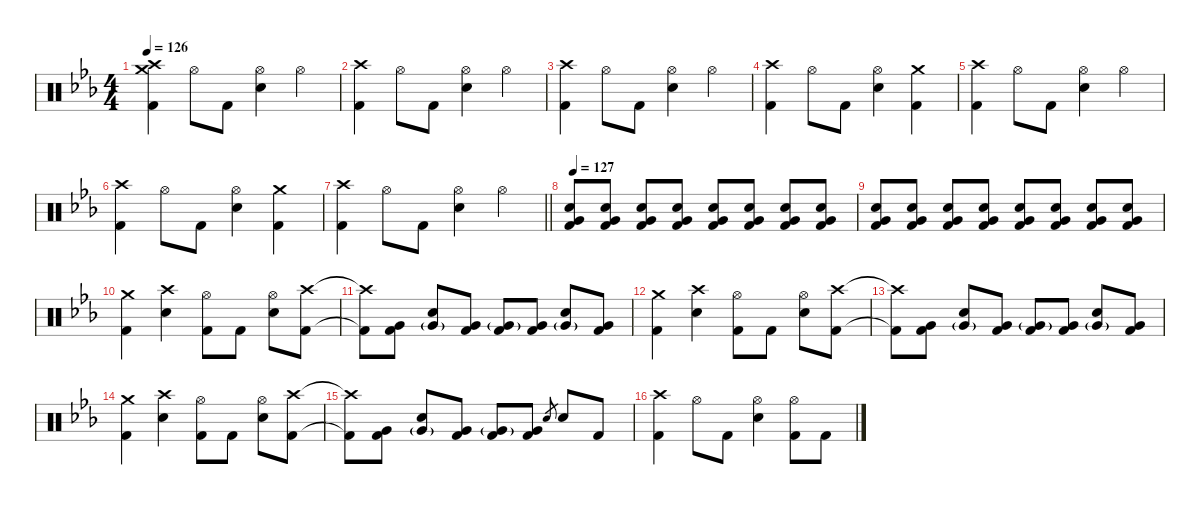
\defaultSystemsLayout 4
\hideDynamics
\bracketExtendMode nobrackets
\singleTrackTrackNamePolicy hidden
\multiTrackTrackNamePolicy hidden
\firstSystemTrackNameMode fullname
\firstSystemTrackNameOrientation horizontal
\otherSystemsTrackNameOrientation horizontal
\track ("Drums" "drm.") {instrument percussion}
\staff {score}
\articulation defaults
\ts (4 4)
\tempo 126
\clef neutral
\ks cminor
("Crash medium (hit)"{acc forcenatural} "Crash high (hit)"{acc forcenatural} "Kick (hit) 2"{acc forcenatural}).4{dy f} "Hi-Hat (open)"{acc forcenatural}.8{dy mp} "Kick (hit) 2"{acc forcenatural}.8{dy f} ("Hi-Hat (open)"{acc forcenatural} "Snare (hit) 2"{acc forcenatural}).4{dy mp} "Hi-Hat (open)"{acc forcenatural}.4 |
("Crash high (hit)"{acc forcenatural} "Kick (hit) 2"{acc forcenatural}).4 "Hi-Hat (open)"{acc forcenatural}.8 "Kick (hit) 2"{acc forcenatural}.8{dy f} ("Hi-Hat (open)"{acc forcenatural} "Snare (hit) 2"{acc forcenatural}).4{dy mp} "Hi-Hat (open)"{acc forcenatural}.4 |
("Crash high (hit)"{acc forcenatural} "Kick (hit) 2"{acc forcenatural}).4 "Hi-Hat (open)"{acc forcenatural}.8 "Kick (hit) 2"{acc forcenatural}.8{dy f} ("Hi-Hat (open)"{acc forcenatural} "Snare (hit) 2"{acc forcenatural}).4{dy mp} "Hi-Hat (open)"{acc forcenatural}.4 |
("Crash high (hit)"{acc forcenatural} "Kick (hit) 2"{acc forcenatural}).4 "Hi-Hat (open)"{acc forcenatural}.8 "Kick (hit) 2"{acc forcenatural}.8{dy f} ("Hi-Hat (open)"{acc forcenatural} "Snare (hit) 2"{acc forcenatural}).4{dy mp} ("Crash medium (hit)"{acc forcenatural} "Kick (hit) 2"{acc forcenatural}).4 |
("Crash high (hit)"{acc forcenatural} "Kick (hit) 2"{acc forcenatural}).4 "Hi-Hat (open)"{acc forcenatural}.8 "Kick (hit) 2"{acc forcenatural}.8{dy f} ("Hi-Hat (open)"{acc forcenatural} "Snare (hit) 2"{acc forcenatural}).4{dy mp} "Hi-Hat (open)"{acc forcenatural}.4 |
("Crash high (hit)"{acc forcenatural} "Kick (hit) 2"{acc forcenatural}).4 "Hi-Hat (open)"{acc forcenatural}.8 "Kick (hit) 2"{acc forcenatural}.8{dy f} ("Hi-Hat (open)"{acc forcenatural} "Snare (hit) 2"{acc forcenatural}).4{dy mp} ("Crash medium (hit)"{acc forcenatural} "Kick (hit) 2"{acc forcenatural}).4 |
\barLineRight lightlight
("Crash high (hit)"{acc forcenatural} "Kick (hit) 2"{acc forcenatural}).4 "Hi-Hat (open)"{acc forcenatural}.8 "Kick (hit) 2"{acc forcenatural}.8{dy f} ("Hi-Hat (open)"{acc forcenatural} "Snare (hit) 2"{acc forcenatural}).4{dy mp} "Hi-Hat (open)"{acc forcenatural}.4 |
\tempo 127
("Snare (hit) 2"{acc forcenatural} "Very Low Tom (hit)"{acc forcenatural} "Kick (hit) 2"{acc forcenatural}).8{dy ppp} ("Snare (hit) 2"{acc forcenatural} "Very Low Tom (hit)"{acc forcenatural} "Kick (hit) 2"{acc forcenatural}).8 ("Snare (hit) 2"{acc forcenatural} "Very Low Tom (hit)"{acc forcenatural} "Kick (hit) 2"{acc forcenatural}).8{dy pp} ("Snare (hit) 2"{acc forcenatural} "Very Low Tom (hit)"{acc forcenatural} "Kick (hit) 2"{acc forcenatural}).8 ("Snare (hit) 2"{acc forcenatural} "Very Low Tom (hit)"{acc forcenatural} "Kick (hit) 2"{acc forcenatural}).8{dy p} ("Snare (hit) 2"{acc forcenatural} "Very Low Tom (hit)"{acc forcenatural} "Kick (hit) 2"{acc forcenatural}).8 ("Snare (hit) 2"{acc forcenatural} "Very Low Tom (hit)"{acc forcenatural} "Kick (hit) 2"{acc forcenatural}).8{dy mp} ("Snare (hit) 2"{acc forcenatural} "Very Low Tom (hit)"{acc forcenatural} "Kick (hit) 2"{acc forcenatural}).8 |
("Snare (hit) 2"{acc forcenatural} "Very Low Tom (hit)"{acc forcenatural} "Kick (hit) 2"{acc forcenatural}).8{dy mf} ("Snare (hit) 2"{acc forcenatural} "Very Low Tom (hit)"{acc forcenatural} "Kick (hit) 2"{acc forcenatural}).8 ("Snare (hit) 2"{acc forcenatural} "Very Low Tom (hit)"{acc forcenatural} "Kick (hit) 2"{acc forcenatural}).8{dy f} ("Snare (hit) 2"{acc forcenatural} "Very Low Tom (hit)"{acc forcenatural} "Kick (hit) 2"{acc forcenatural}).8 ("Snare (hit) 2"{acc forcenatural} "Very Low Tom (hit)"{acc forcenatural} "Kick (hit) 2"{acc forcenatural}).8{dy ff} ("Snare (hit) 2"{acc forcenatural} "Very Low Tom (hit)"{acc forcenatural} "Kick (hit) 2"{acc forcenatural}).8 ("Snare (hit) 2"{acc forcenatural} "Very Low Tom (hit)"{acc forcenatural} "Kick (hit) 2"{acc forcenatural}).8{dy fff} ("Snare (hit) 2"{acc forcenatural} "Very Low Tom (hit)"{acc forcenatural} "Kick (hit) 2"{acc forcenatural}).8 |
("Crash medium (hit)"{acc forcenatural} "Kick (hit) 2"{acc forcenatural}).4{dy f} ("Crash high (hit)"{acc forcenatural} "Snare (hit) 2"{acc forcenatural}).4 ("Hi-Hat (open)"{acc forcenatural} "Kick (hit) 2"{acc forcenatural}).8{dy mp} "Kick (hit) 2"{acc forcenatural}.8{dy f} ("Hi-Hat (open)"{acc forcenatural} "Snare (hit) 2"{acc forcenatural}).8{dy mp} ("Crash high (hit)"{acc forcenatural} "Kick (hit) 2"{acc forcenatural}).8{dy f} |
("Crash high (hit)"{t acc forcenatural} "Kick (hit) 2"{t acc forcenatural}).8 ("Very Low Tom (hit)"{acc forcenatural} "Kick (hit) 2"{acc forcenatural}).8 ("Snare (hit) 2"{acc forcenatural} "Very Low Tom (hit)"{g acc forcenatural}).8 ("Very Low Tom (hit)"{acc forcenatural} "Kick (hit) 2"{acc forcenatural}).8 ("Very Low Tom (hit)"{g acc forcenatural} "Kick (hit) 2"{acc forcenatural}).8 ("Very Low Tom (hit)"{acc forcenatural} "Kick (hit) 2"{acc forcenatural}).8 ("Snare (hit) 2"{acc forcenatural} "Very Low Tom (hit)"{g acc forcenatural}).8 ("Very Low Tom (hit)"{acc forcenatural} "Kick (hit) 2"{acc forcenatural}).8 |
("Crash medium (hit)"{acc forcenatural} "Kick (hit) 2"{acc forcenatural}).4 ("Crash high (hit)"{acc forcenatural} "Snare (hit) 2"{acc forcenatural}).4 ("Hi-Hat (open)"{acc forcenatural} "Kick (hit) 2"{acc forcenatural}).8{dy mp} "Kick (hit) 2"{acc forcenatural}.8{dy f} ("Hi-Hat (open)"{acc forcenatural} "Snare (hit) 2"{acc forcenatural}).8{dy mp} ("Crash high (hit)"{acc forcenatural} "Kick (hit) 2"{acc forcenatural}).8{dy f} |
("Crash high (hit)"{t acc forcenatural} "Kick (hit) 2"{t acc forcenatural}).8 ("Very Low Tom (hit)"{acc forcenatural} "Kick (hit) 2"{acc forcenatural}).8 ("Snare (hit) 2"{acc forcenatural} "Very Low Tom (hit)"{g acc forcenatural}).8 ("Very Low Tom (hit)"{acc forcenatural} "Kick (hit) 2"{acc forcenatural}).8 ("Very Low Tom (hit)"{g acc forcenatural} "Kick (hit) 2"{acc forcenatural}).8 ("Very Low Tom (hit)"{acc forcenatural} "Kick (hit) 2"{acc forcenatural}).8 ("Snare (hit) 2"{acc forcenatural} "Very Low Tom (hit)"{g acc forcenatural}).8 ("Very Low Tom (hit)"{acc forcenatural} "Kick (hit) 2"{acc forcenatural}).8 |
("Crash medium (hit)"{acc forcenatural} "Kick (hit) 2"{acc forcenatural}).4 ("Crash high (hit)"{acc forcenatural} "Snare (hit) 2"{acc forcenatural}).4 ("Hi-Hat (open)"{acc forcenatural} "Kick (hit) 2"{acc forcenatural}).8{dy mp} "Kick (hit) 2"{acc forcenatural}.8{dy f} ("Hi-Hat (open)"{acc forcenatural} "Snare (hit) 2"{acc forcenatural}).8{dy mp} ("Crash high (hit)"{acc forcenatural} "Kick (hit) 2"{acc forcenatural}).8{dy f} |
("Crash high (hit)"{t acc forcenatural} "Kick (hit) 2"{t acc forcenatural}).8 ("Very Low Tom (hit)"{acc forcenatural} "Kick (hit) 2"{acc forcenatural}).8 ("Snare (hit) 2"{acc forcenatural} "Very Low Tom (hit)"{g acc forcenatural}).8 ("Very Low Tom (hit)"{acc forcenatural} "Kick (hit) 2"{acc forcenatural}).8 ("Very Low Tom (hit)"{g acc forcenatural} "Kick (hit) 2"{acc forcenatural}).8 ("Very Low Tom (hit)"{acc forcenatural} "Kick (hit) 2"{acc forcenatural}).8 "Electric Snare (hit)"{acc forcenatural}.8{gr dy mf} "Snare (hit) 2"{acc forcenatural}.8{dy f} "Kick (hit) 2"{acc forcenatural}.8 |
("Crash high (hit)"{acc forcenatural} "Kick (hit) 2"{acc forcenatural}).4 "Hi-Hat (open)"{acc forcenatural}.8{dy mp} "Kick (hit) 2"{acc forcenatural}.8{dy f} ("Hi-Hat (open)"{acc forcenatural} "Snare (hit) 2"{acc forcenatural}).4{dy mp} ("Hi-Hat (open)"{acc forcenatural} "Kick (hit) 2"{acc forcenatural}).8 "Kick (hit) 2"{acc forcenatural}.8{dy f}
